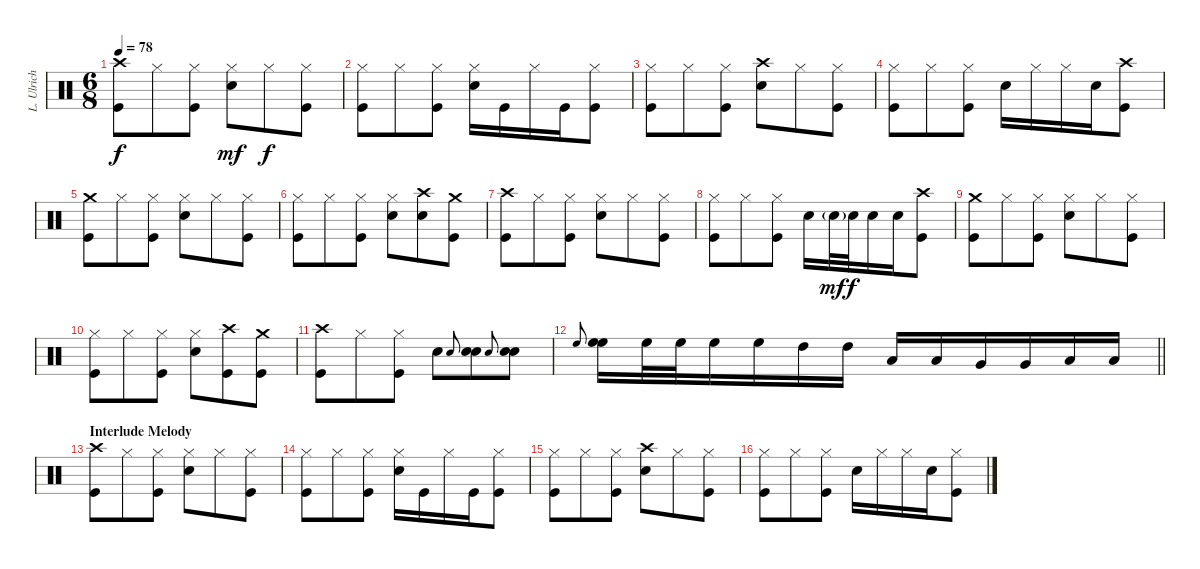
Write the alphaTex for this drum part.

\track ("L. Ulrich" "L. Ulrich") {instrument percussion}
\staff {score}
\articulation defaults
\ts (6 8)
\tempo 78
\clef neutral
\ks c
("Crash high (hit)" "Kick (hit)").8{dy f} "Hi-Hat (closed)".8 ("Hi-Hat (closed)" "Kick (hit)").8 ("Hi-Hat (closed)" "Snare (hit) 2").8{dy mf} "Hi-Hat (closed)".8{dy f} ("Hi-Hat (closed)" "Kick (hit)").8 |
("Hi-Hat (closed)" "Kick (hit)").8 "Hi-Hat (closed)".8 ("Hi-Hat (closed)" "Kick (hit)").8 ("Hi-Hat (closed)" "Snare (hit) 2").16 "Kick (hit)".16 "Hi-Hat (closed)".16 "Kick (hit)".16 ("Hi-Hat (closed)" "Kick (hit)").8 |
("Hi-Hat (closed)" "Kick (hit)").8 "Hi-Hat (closed)".8 ("Hi-Hat (closed)" "Kick (hit)").8 ("Crash high (hit)" "Snare (hit) 2").8 "Hi-Hat (closed)".8 ("Hi-Hat (closed)" "Kick (hit)").8 |
("Hi-Hat (closed)" "Kick (hit)").8 "Hi-Hat (closed)".8 ("Hi-Hat (closed)" "Kick (hit)").8 "Snare (hit) 2".16 "Hi-Hat (closed)".16 "Hi-Hat (closed)".16 "Snare (hit) 2".16 ("Crash high (hit)" "Kick (hit)").8 |
("Crash medium (hit)" "Kick (hit)").8 "Hi-Hat (closed)".8 ("Hi-Hat (closed)" "Kick (hit)").8 ("Hi-Hat (closed)" "Snare (hit) 2").8 "Hi-Hat (closed)".8 ("Hi-Hat (closed)" "Kick (hit)").8 |
("Hi-Hat (closed)" "Kick (hit)").8 "Hi-Hat (closed)".8 ("Hi-Hat (closed)" "Kick (hit)").8 ("Hi-Hat (closed)" "Snare (hit) 2").8 ("Crash high (hit)" "Snare (hit) 2").8 ("Crash medium (hit)" "Kick (hit)").8 |
("Crash high (hit)" "Kick (hit)").8 "Hi-Hat (closed)".8 ("Hi-Hat (closed)" "Kick (hit)").8 ("Hi-Hat (closed)" "Snare (hit) 2").8 "Hi-Hat (closed)".8 ("Hi-Hat (closed)" "Kick (hit)").8 |
("Hi-Hat (closed)" "Kick (hit)").8 "Hi-Hat (closed)".8 ("Hi-Hat (closed)" "Kick (hit)").8 "Snare (hit) 2".16 "Snare (hit) 2"{g}.32{dy mf} "Snare (hit) 2".32{dy f} "Snare (hit) 2".16 "Snare (hit) 2".16 ("Crash high (hit)" "Kick (hit)").8 |
("Crash medium (hit)" "Kick (hit)").8 "Hi-Hat (closed)".8 ("Hi-Hat (closed)" "Kick (hit)").8 ("Hi-Hat (closed)" "Snare (hit) 2").8 "Hi-Hat (closed)".8 ("Hi-Hat (closed)" "Kick (hit)").8 |
("Hi-Hat (closed)" "Kick (hit)").8 "Hi-Hat (closed)".8 ("Hi-Hat (closed)" "Kick (hit)").8 ("Hi-Hat (closed)" "Snare (hit) 2").8 ("Crash high (hit)" "Kick (hit)").8 ("Crash medium (hit)" "Kick (hit)").8 |
("Crash high (hit)" "Kick (hit)").8 "Hi-Hat (closed)".8 ("Hi-Hat (closed)" "Kick (hit)").8 "Snare (hit) 2".8 "Snare (hit) 2".8{gr onbeat} ("Snare (hit) 2" "Snare (hit) 2").8 "Snare (hit) 2".8{gr onbeat} ("Snare (hit) 2" "Snare (hit) 2").8 |
\barLineRight lightlight "High Floor Tom (hit)".8{gr onbeat}
("High Floor Tom (hit)" "High Floor Tom (hit)").16 "High Floor Tom (hit)".32 "High Floor Tom (hit)".32 "High Floor Tom (hit)".16 "High Floor Tom (hit)".16 "High Tom (hit)".16 "High Tom (hit)".16 "Low Tom (hit)".16 "Low Tom (hit)".16 "Very Low Tom (hit)".16 "Very Low Tom (hit)".16 "Low Floor Tom (hit)".16 "Low Floor Tom (hit)".16 |
\section ("" "Interlude Melody")
("Crash high (hit)" "Kick (hit)").8 "Hi-Hat (closed)".8 ("Hi-Hat (closed)" "Kick (hit)").8 ("Hi-Hat (closed)" "Snare (hit) 2").8 "Hi-Hat (closed)".8 ("Hi-Hat (closed)" "Kick (hit)").8 |
("Hi-Hat (closed)" "Kick (hit)").8 "Hi-Hat (closed)".8 ("Hi-Hat (closed)" "Kick (hit)").8 ("Hi-Hat (closed)" "Snare (hit) 2").16 "Kick (hit)".16 "Hi-Hat (closed)".16 "Kick (hit)".16 ("Hi-Hat (closed)" "Kick (hit)").8 |
("Hi-Hat (closed)" "Kick (hit)").8 "Hi-Hat (closed)".8 ("Hi-Hat (closed)" "Kick (hit)").8 ("Crash high (hit)" "Snare (hit) 2").8 "Hi-Hat (closed)".8 ("Hi-Hat (closed)" "Kick (hit)").8 |
("Hi-Hat (closed)" "Kick (hit)").8 "Hi-Hat (closed)".8 ("Hi-Hat (closed)" "Kick (hit)").8 "Snare (hit) 2".16 "Hi-Hat (closed)".16 "Hi-Hat (closed)".16 "Snare (hit) 2".16 ("Hi-Hat (closed)" "Kick (hit)").8
